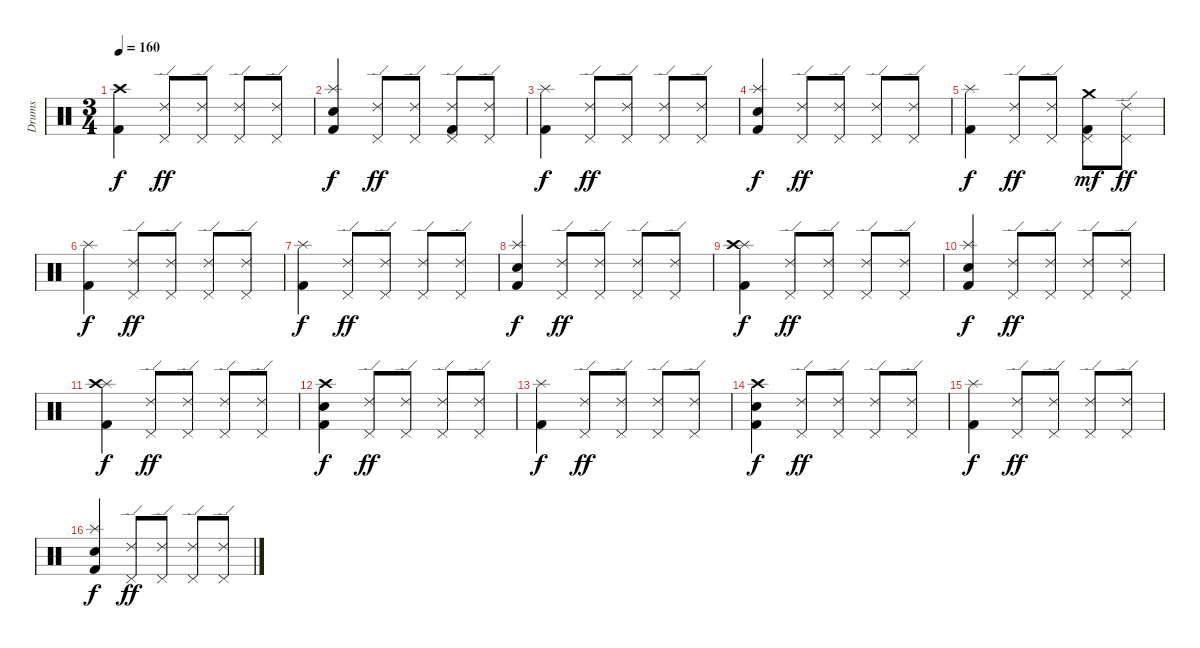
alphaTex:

\track ("Drums" "Drums") {instrument percussion}
\staff {score}
\articulation defaults
\ts (3 4)
\tempo 160
\clef neutral
\ks c
("Crash high (hit)" "Kick (hit) 2").4{dy f} ("Ride (edge) 2" "Pedal Hi-Hat (hit)").8{dy ff} ("Ride (edge) 2" "Pedal Hi-Hat (hit)").8 ("Ride (edge) 2" "Pedal Hi-Hat (hit)").8 ("Ride (edge) 2" "Pedal Hi-Hat (hit)").8 |
("Splash (hit)" "Electric Snare (hit)" "Kick (hit) 2").4{dy f} ("Ride (edge) 2" "Pedal Hi-Hat (hit)").8{dy ff} ("Ride (edge) 2" "Pedal Hi-Hat (hit)").8 ("Ride (edge) 2" "Pedal Hi-Hat (hit)" "Kick (hit) 2").8 ("Ride (edge) 2" "Pedal Hi-Hat (hit)").8 |
("Splash (hit)" "Kick (hit) 2").4{dy f} ("Ride (edge) 2" "Pedal Hi-Hat (hit)").8{dy ff} ("Ride (edge) 2" "Pedal Hi-Hat (hit)").8 ("Ride (edge) 2" "Pedal Hi-Hat (hit)").8 ("Ride (edge) 2" "Pedal Hi-Hat (hit)").8 |
("Splash (hit)" "Electric Snare (hit)" "Kick (hit) 2").4{dy f} ("Ride (edge) 2" "Pedal Hi-Hat (hit)").8{dy ff} ("Ride (edge) 2" "Pedal Hi-Hat (hit)").8 ("Ride (edge) 2" "Pedal Hi-Hat (hit)").8 ("Ride (edge) 2" "Pedal Hi-Hat (hit)").8 |
("Splash (hit)" "Kick (hit) 2").4{dy f} ("Ride (edge) 2" "Pedal Hi-Hat (hit)").8{dy ff} ("Ride (edge) 2" "Pedal Hi-Hat (hit)").8 ("Pedal Hi-Hat (hit)" "Crash medium (hit)" "Kick (hit) 2").8{dy mf} ("Ride (edge) 2" "Pedal Hi-Hat (hit)").8{dy ff} |
("Splash (hit)" "Kick (hit) 2").4{dy f} ("Ride (edge) 2" "Pedal Hi-Hat (hit)").8{dy ff} ("Ride (edge) 2" "Pedal Hi-Hat (hit)").8 ("Ride (edge) 2" "Pedal Hi-Hat (hit)").8 ("Ride (edge) 2" "Pedal Hi-Hat (hit)").8 |
("Splash (hit)" "Kick (hit) 2").4{dy f} ("Ride (edge) 2" "Pedal Hi-Hat (hit)").8{dy ff} ("Ride (edge) 2" "Pedal Hi-Hat (hit)").8 ("Ride (edge) 2" "Pedal Hi-Hat (hit)").8 ("Ride (edge) 2" "Pedal Hi-Hat (hit)").8 |
("Splash (hit)" "Electric Snare (hit)" "Kick (hit) 2").4{dy f} ("Ride (edge) 2" "Pedal Hi-Hat (hit)").8{dy ff} ("Ride (edge) 2" "Pedal Hi-Hat (hit)").8 ("Ride (edge) 2" "Pedal Hi-Hat (hit)").8 ("Ride (edge) 2" "Pedal Hi-Hat (hit)").8 |
("Splash (hit)" "Crash high (hit)" "Kick (hit) 2").4{dy f} ("Ride (edge) 2" "Pedal Hi-Hat (hit)").8{dy ff} ("Ride (edge) 2" "Pedal Hi-Hat (hit)").8 ("Ride (edge) 2" "Pedal Hi-Hat (hit)").8 ("Ride (edge) 2" "Pedal Hi-Hat (hit)").8 |
("Splash (hit)" "Electric Snare (hit)" "Kick (hit) 2").4{dy f} ("Ride (edge) 2" "Pedal Hi-Hat (hit)").8{dy ff} ("Ride (edge) 2" "Pedal Hi-Hat (hit)").8 ("Ride (edge) 2" "Pedal Hi-Hat (hit)").8 ("Ride (edge) 2" "Pedal Hi-Hat (hit)").8 |
("Splash (hit)" "Crash high (hit)" "Kick (hit) 2").4{dy f} ("Ride (edge) 2" "Pedal Hi-Hat (hit)").8{dy ff} ("Ride (edge) 2" "Pedal Hi-Hat (hit)").8 ("Ride (edge) 2" "Pedal Hi-Hat (hit)").8 ("Ride (edge) 2" "Pedal Hi-Hat (hit)").8 |
("Crash high (hit)" "Electric Snare (hit)" "Kick (hit) 2").4{dy f} ("Ride (edge) 2" "Pedal Hi-Hat (hit)").8{dy ff} ("Ride (edge) 2" "Pedal Hi-Hat (hit)").8 ("Ride (edge) 2" "Pedal Hi-Hat (hit)").8 ("Ride (edge) 2" "Pedal Hi-Hat (hit)").8 |
("Splash (hit)" "Kick (hit) 2").4{dy f} ("Ride (edge) 2" "Pedal Hi-Hat (hit)").8{dy ff} ("Ride (edge) 2" "Pedal Hi-Hat (hit)").8 ("Ride (edge) 2" "Pedal Hi-Hat (hit)").8 ("Ride (edge) 2" "Pedal Hi-Hat (hit)").8 |
("Crash high (hit)" "Electric Snare (hit)" "Kick (hit) 2").4{dy f} ("Ride (edge) 2" "Pedal Hi-Hat (hit)").8{dy ff} ("Ride (edge) 2" "Pedal Hi-Hat (hit)").8 ("Ride (edge) 2" "Pedal Hi-Hat (hit)").8 ("Ride (edge) 2" "Pedal Hi-Hat (hit)").8 |
("Splash (hit)" "Kick (hit) 2").4{dy f} ("Ride (edge) 2" "Pedal Hi-Hat (hit)").8{dy ff} ("Ride (edge) 2" "Pedal Hi-Hat (hit)").8 ("Ride (edge) 2" "Pedal Hi-Hat (hit)").8 ("Ride (edge) 2" "Pedal Hi-Hat (hit)").8 |
("Splash (hit)" "Electric Snare (hit)" "Kick (hit) 2").4{dy f} ("Ride (edge) 2" "Pedal Hi-Hat (hit)").8{dy ff} ("Ride (edge) 2" "Pedal Hi-Hat (hit)").8 ("Ride (edge) 2" "Pedal Hi-Hat (hit)").8 ("Ride (edge) 2" "Pedal Hi-Hat (hit)").8
